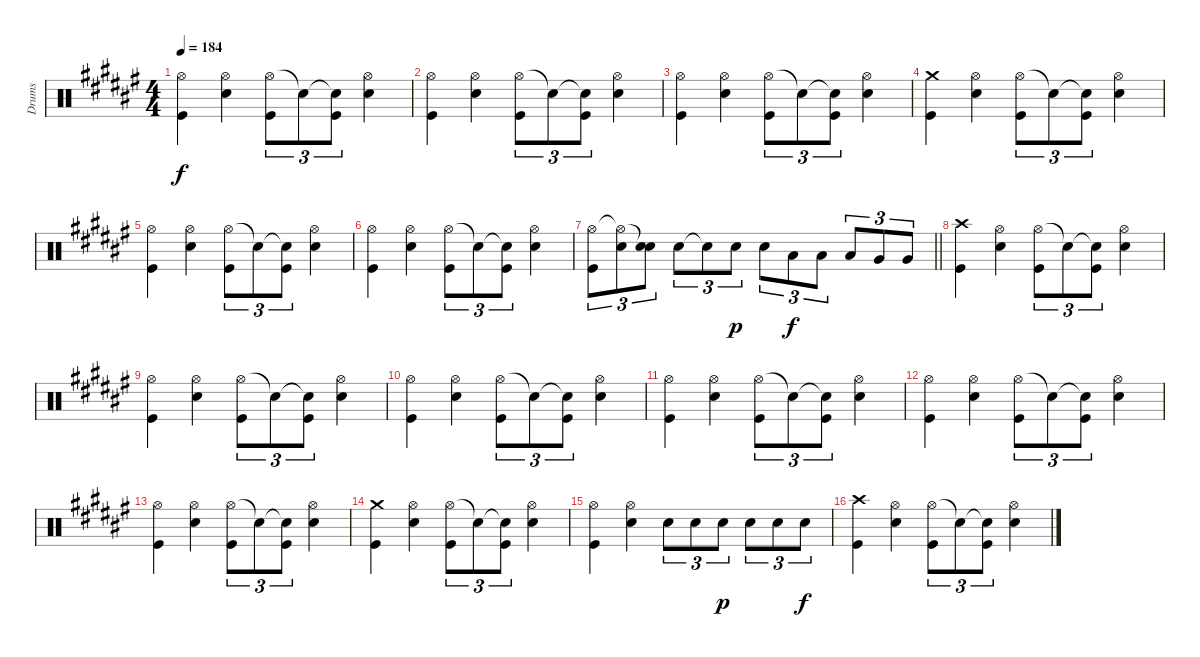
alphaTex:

\track ("Drums" "Drums") {instrument percussion}
\staff {score}
\articulation defaults
\ts (4 4)
\tempo 184
\clef neutral
\ks f#
("Hi-Hat (open)" "Kick (hit)").4{dy f} ("Hi-Hat (open)" "Electric Snare (hit)").4 ("Hi-Hat (open)" "Kick (hit)").8{tu (3 2)} "Snare (hit)"{t}.8{tu (3 2)} ("Snare (hit)"{t} "Kick (hit)").8{tu (3 2)} ("Hi-Hat (open)" "Electric Snare (hit)").4 |
("Hi-Hat (open)" "Kick (hit)").4 ("Hi-Hat (open)" "Electric Snare (hit)").4 ("Hi-Hat (open)" "Kick (hit)").8{tu (3 2)} "Snare (hit)"{t}.8{tu (3 2)} ("Snare (hit)"{t} "Kick (hit)").8{tu (3 2)} ("Hi-Hat (open)" "Electric Snare (hit)").4 |
("Hi-Hat (open)" "Kick (hit)").4 ("Hi-Hat (open)" "Electric Snare (hit)").4 ("Hi-Hat (open)" "Kick (hit)").8{tu (3 2)} "Snare (hit)"{t}.8{tu (3 2)} ("Snare (hit)"{t} "Kick (hit)").8{tu (3 2)} ("Hi-Hat (open)" "Electric Snare (hit)").4 |
("Crash medium (hit)" "Kick (hit)").4 ("Hi-Hat (open)" "Electric Snare (hit)").4 ("Hi-Hat (open)" "Kick (hit)").8{tu (3 2)} "Snare (hit)"{t}.8{tu (3 2)} ("Snare (hit)"{t} "Kick (hit)").8{tu (3 2)} ("Hi-Hat (open)" "Electric Snare (hit)").4 |
("Hi-Hat (open)" "Kick (hit)").4 ("Hi-Hat (open)" "Electric Snare (hit)").4 ("Hi-Hat (open)" "Kick (hit)").8{tu (3 2)} "Snare (hit)"{t}.8{tu (3 2)} ("Snare (hit)"{t} "Kick (hit)").8{tu (3 2)} ("Hi-Hat (open)" "Electric Snare (hit)").4 |
("Hi-Hat (open)" "Kick (hit)").4 ("Hi-Hat (open)" "Electric Snare (hit)").4 ("Hi-Hat (open)" "Kick (hit)").8{tu (3 2)} "Snare (hit)"{t}.8{tu (3 2)} ("Snare (hit)"{t} "Kick (hit)").8{tu (3 2)} ("Hi-Hat (open)" "Electric Snare (hit)").4 |
\barLineRight lightlight
("Hi-Hat (open)" "Kick (hit)").8{tu (3 2)} ("Hi-Hat (open)"{t} "Electric Snare (hit)").8{tu (3 2)} ("Snare (hit)"{t} "Electric Snare (hit)").8{tu (3 2)} "Electric Snare (hit)".8{tu (3 2)} "Electric Snare (hit)"{t}.8{tu (3 2)} "Electric Snare (hit)".8{tu (3 2) dy p} "Electric Snare (hit)".8{tu (3 2)} "Low Tom (hit)".8{tu (3 2) dy f} "Low Tom (hit)".8{tu (3 2)} "Low Tom (hit)".8{tu (3 2)} "Very Low Tom (hit)".8{tu (3 2)} "Very Low Tom (hit)".8{tu (3 2)} |
("Crash high (hit)" "Kick (hit)").4 ("Hi-Hat (open)" "Electric Snare (hit)").4 ("Hi-Hat (open)" "Kick (hit)").8{tu (3 2)} "Snare (hit)"{t}.8{tu (3 2)} ("Snare (hit)"{t} "Kick (hit)").8{tu (3 2)} ("Hi-Hat (open)" "Electric Snare (hit)").4 |
("Hi-Hat (open)" "Kick (hit)").4 ("Hi-Hat (open)" "Electric Snare (hit)").4 ("Hi-Hat (open)" "Kick (hit)").8{tu (3 2)} "Snare (hit)"{t}.8{tu (3 2)} ("Snare (hit)"{t} "Kick (hit)").8{tu (3 2)} ("Hi-Hat (open)" "Electric Snare (hit)").4 |
("Hi-Hat (open)" "Kick (hit)").4 ("Hi-Hat (open)" "Electric Snare (hit)").4 ("Hi-Hat (open)" "Kick (hit)").8{tu (3 2)} "Snare (hit)"{t}.8{tu (3 2)} ("Snare (hit)"{t} "Kick (hit)").8{tu (3 2)} ("Hi-Hat (open)" "Electric Snare (hit)").4 |
("Hi-Hat (open)" "Kick (hit)").4 ("Hi-Hat (open)" "Electric Snare (hit)").4 ("Hi-Hat (open)" "Kick (hit)").8{tu (3 2)} "Snare (hit)"{t}.8{tu (3 2)} ("Snare (hit)"{t} "Kick (hit)").8{tu (3 2)} ("Hi-Hat (open)" "Electric Snare (hit)").4 |
("Hi-Hat (open)" "Kick (hit)").4 ("Hi-Hat (open)" "Electric Snare (hit)").4 ("Hi-Hat (open)" "Kick (hit)").8{tu (3 2)} "Snare (hit)"{t}.8{tu (3 2)} ("Snare (hit)"{t} "Kick (hit)").8{tu (3 2)} ("Hi-Hat (open)" "Electric Snare (hit)").4 |
("Hi-Hat (open)" "Kick (hit)").4 ("Hi-Hat (open)" "Electric Snare (hit)").4 ("Hi-Hat (open)" "Kick (hit)").8{tu (3 2)} "Snare (hit)"{t}.8{tu (3 2)} ("Snare (hit)"{t} "Kick (hit)").8{tu (3 2)} ("Hi-Hat (open)" "Electric Snare (hit)").4 |
("Crash medium (hit)" "Kick (hit)").4 ("Hi-Hat (open)" "Electric Snare (hit)").4 ("Hi-Hat (open)" "Kick (hit)").8{tu (3 2)} "Snare (hit)"{t}.8{tu (3 2)} ("Snare (hit)"{t} "Kick (hit)").8{tu (3 2)} ("Hi-Hat (open)" "Electric Snare (hit)").4 |
("Hi-Hat (open)" "Kick (hit)").4 ("Hi-Hat (open)" "Electric Snare (hit)").4 "Electric Snare (hit)".8{tu (3 2)} "Electric Snare (hit)".8{tu (3 2)} "Electric Snare (hit)".8{tu (3 2) dy p} "Electric Snare (hit)".8{tu (3 2)} "Electric Snare (hit)".8{tu (3 2)} "Electric Snare (hit)".8{tu (3 2) dy f} |
("Crash high (hit)" "Kick (hit)").4 ("Hi-Hat (open)" "Electric Snare (hit)").4 ("Hi-Hat (open)" "Kick (hit)").8{tu (3 2)} "Snare (hit)"{t}.8{tu (3 2)} ("Snare (hit)"{t} "Kick (hit)").8{tu (3 2)} ("Hi-Hat (open)" "Electric Snare (hit)").4
